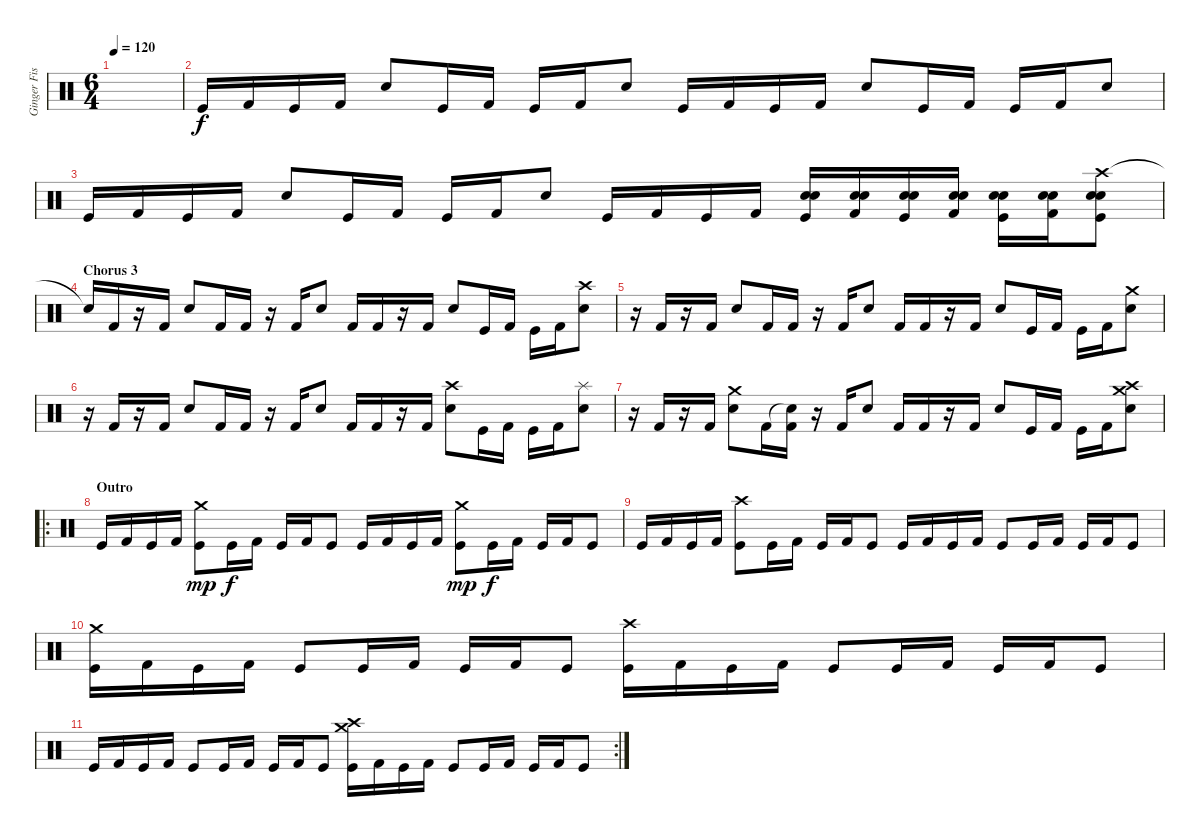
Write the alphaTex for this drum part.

\track ("Ginger Fish" "Ginger Fis") {instrument percussion}
\staff {score}
\articulation defaults
\ts (6 4)
\tempo 120
\clef neutral
\ks c
|
"Kick (hit)".16{dy f} "Kick (hit) 2".16 "Kick (hit)".16 "Kick (hit) 2".16 "Snare (hit) 2".8 "Kick (hit)".16 "Kick (hit) 2".16 "Kick (hit)".16 "Kick (hit) 2".16 "Snare (hit) 2".8 "Kick (hit)".16 "Kick (hit) 2".16 "Kick (hit)".16 "Kick (hit) 2".16 "Snare (hit) 2".8 "Kick (hit)".16 "Kick (hit) 2".16 "Kick (hit)".16 "Kick (hit) 2".16 "Snare (hit) 2".8 |
"Kick (hit)".16 "Kick (hit) 2".16 "Kick (hit)".16 "Kick (hit) 2".16 "Snare (hit) 2".8 "Kick (hit)".16 "Kick (hit) 2".16 "Kick (hit)".16 "Kick (hit) 2".16 "Snare (hit) 2".8 "Kick (hit)".16 "Kick (hit) 2".16 "Kick (hit)".16 "Kick (hit) 2".16 ("Electric Snare (hit)" "Electric Snare (hit)" "Kick (hit)").16 ("Electric Snare (hit)" "Electric Snare (hit)" "Kick (hit) 2").16 ("Electric Snare (hit)" "Electric Snare (hit)" "Kick (hit)").16 ("Electric Snare (hit)" "Electric Snare (hit)" "Kick (hit) 2").16 ("Electric Snare (hit)" "Electric Snare (hit)" "Kick (hit)").16 ("Electric Snare (hit)" "Electric Snare (hit)" "Kick (hit) 2").16 ("Crash high (hit)" "Electric Snare (hit)" "Electric Snare (hit)" "Kick (hit)").8 |
\section ("" "Chorus 3")
"Snare (hit)"{t}.16 "Kick (hit) 2".16 r.16 "Kick (hit) 2".16 "Snare (hit) 2".8 "Kick (hit) 2".16 "Kick (hit) 2".16 r.16 "Kick (hit) 2".16 "Snare (hit) 2".8 "Kick (hit) 2".16 "Kick (hit) 2".16 r.16 "Kick (hit) 2".16 "Snare (hit) 2".8 "Kick (hit)".16 "Kick (hit) 2".16 "Kick (hit)".16 "Kick (hit) 2".16 ("Crash high (hit)" "Snare (hit) 2").8 |
r.16 "Kick (hit) 2".16 r.16 "Kick (hit) 2".16 "Snare (hit) 2".8 "Kick (hit) 2".16 "Kick (hit) 2".16 r.16 "Kick (hit) 2".16 "Snare (hit) 2".8 "Kick (hit) 2".16 "Kick (hit) 2".16 r.16 "Kick (hit) 2".16 "Snare (hit) 2".8 "Kick (hit)".16 "Kick (hit) 2".16 "Kick (hit)".16 "Kick (hit) 2".16 ("Crash medium (hit)" "Snare (hit) 2").8 |
r.16 "Kick (hit) 2".16 r.16 "Kick (hit) 2".16 "Snare (hit) 2".8 "Kick (hit) 2".16 "Kick (hit) 2".16 r.16 "Kick (hit) 2".16 "Snare (hit) 2".8 "Kick (hit) 2".16 "Kick (hit) 2".16 r.16 "Kick (hit) 2".16 ("Crash high (hit)" "Snare (hit) 2").8 "Kick (hit)".16 "Kick (hit) 2".16 "Kick (hit)".16 "Kick (hit) 2".16 ("Splash (hit)" "Snare (hit) 2").8 |
r.16 "Kick (hit) 2".16 r.16 "Kick (hit) 2".16 ("Crash medium (hit)" "Snare (hit) 2").8 "Kick (hit) 2".16 ("Snare (hit)"{t} "Kick (hit) 2").16 r.16 "Kick (hit) 2".16 "Snare (hit) 2".8 "Kick (hit) 2".16 "Kick (hit) 2".16 r.16 "Kick (hit) 2".16 "Snare (hit) 2".8 "Kick (hit)".16 "Kick (hit) 2".16 "Kick (hit)".16 "Kick (hit) 2".16 ("Crash high (hit)" "Crash medium (hit)" "Snare (hit) 2").8 |
\ro
\section ("" "Outro")
"Kick (hit)".16 "Kick (hit) 2".16 "Kick (hit)".16 "Kick (hit) 2".16 ("Crash medium (hit)" "Kick (hit)").8{dy mp} "Kick (hit)".16{dy f} "Kick (hit) 2".16 "Kick (hit)".16 "Kick (hit) 2".16 "Kick (hit)".8 "Kick (hit)".16 "Kick (hit) 2".16 "Kick (hit)".16 "Kick (hit) 2".16 ("Crash medium (hit)" "Kick (hit)").8{dy mp} "Kick (hit)".16{dy f} "Kick (hit) 2".16 "Kick (hit)".16 "Kick (hit) 2".16 "Kick (hit)".8 |
"Kick (hit)".16 "Kick (hit) 2".16 "Kick (hit)".16 "Kick (hit) 2".16 ("Crash high (hit)" "Kick (hit)").8 "Kick (hit)".16 "Kick (hit) 2".16 "Kick (hit)".16 "Kick (hit) 2".16 "Kick (hit)".8 "Kick (hit)".16 "Kick (hit) 2".16 "Kick (hit)".16 "Kick (hit) 2".16 "Kick (hit)".8 "Kick (hit)".16 "Kick (hit) 2".16 "Kick (hit)".16 "Kick (hit) 2".16 "Kick (hit)".8 |
("Crash medium (hit)" "Kick (hit)").16 "Kick (hit) 2".16 "Kick (hit)".16 "Kick (hit) 2".16 "Kick (hit)".8 "Kick (hit)".16 "Kick (hit) 2".16 "Kick (hit)".16 "Kick (hit) 2".16 "Kick (hit)".8 ("Crash high (hit)" "Kick (hit)").16 "Kick (hit) 2".16 "Kick (hit)".16 "Kick (hit) 2".16 "Kick (hit)".8 "Kick (hit)".16 "Kick (hit) 2".16 "Kick (hit)".16 "Kick (hit) 2".16 "Kick (hit)".8 |
\rc 2 "Kick (hit)".16 "Kick (hit) 2".16 "Kick (hit)".16 "Kick (hit) 2".16 "Kick (hit)".8 "Kick (hit)".16 "Kick (hit) 2".16 "Kick (hit)".16 "Kick (hit) 2".16 "Kick (hit)".8
("Crash high (hit)" "Crash medium (hit)" "Kick (hit)").16 "Kick (hit) 2".16 "Kick (hit)".16 "Kick (hit) 2".16 "Kick (hit)".8 "Kick (hit)".16 "Kick (hit) 2".16 "Kick (hit)".16 "Kick (hit) 2".16 "Kick (hit)".8
